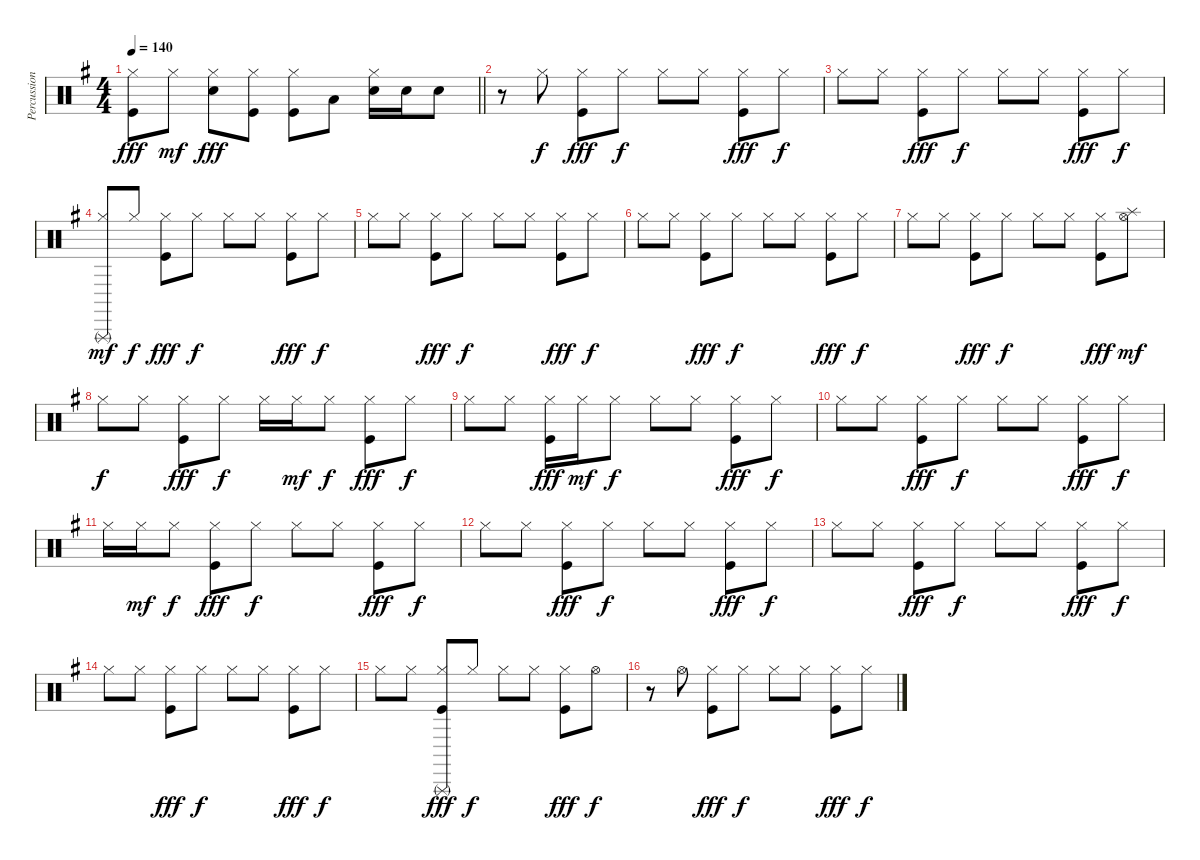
\track ("Percussioni" "Percussion") {instrument percussion}
\staff {score}
\articulation defaults
\ts (4 4)
\tempo 140
\clef neutral
\barLineRight lightlight
\ks eminor
("Hi-Hat (closed)" "Kick (hit)").8{dy fff} "Hi-Hat (closed)".8{dy mf} ("Hi-Hat (closed)" "Electric Snare (hit)").8{dy fff} ("Hi-Hat (closed)" "Kick (hit)").8 ("Hi-Hat (closed)" "Kick (hit)").8 "Low Tom (hit)".8 ("Hi-Hat (closed)" "Electric Snare (hit)").16 "Electric Snare (hit)".16 "Electric Snare (hit)".8 |
\section ("" "")
r.8 "Hi-Hat (closed)".8{dy f} ("Hi-Hat (closed)" "Kick (hit)").8{dy fff} "Hi-Hat (closed)".8{dy f} "Hi-Hat (closed)".8 "Hi-Hat (closed)".8 ("Hi-Hat (closed)" "Kick (hit)").8{dy fff} "Hi-Hat (closed)".8{dy f} |
"Hi-Hat (closed)".8 "Hi-Hat (closed)".8 ("Hi-Hat (closed)" "Kick (hit)").8{dy fff} "Hi-Hat (closed)".8{dy f} "Hi-Hat (closed)".8 "Hi-Hat (closed)".8 ("Hi-Hat (closed)" "Kick (hit)").8{dy fff} "Hi-Hat (closed)".8{dy f} |
("Hi-Hat (closed)" "Triangle (rnute)").8{dy mf} "Hi-Hat (closed)".8{dy f} ("Hi-Hat (closed)" "Kick (hit)").8{dy fff} "Hi-Hat (closed)".8{dy f} "Hi-Hat (closed)".8 "Hi-Hat (closed)".8 ("Hi-Hat (closed)" "Kick (hit)").8{dy fff} "Hi-Hat (closed)".8{dy f} |
"Hi-Hat (closed)".8 "Hi-Hat (closed)".8 ("Hi-Hat (closed)" "Kick (hit)").8{dy fff} "Hi-Hat (closed)".8{dy f} "Hi-Hat (closed)".8 "Hi-Hat (closed)".8 ("Hi-Hat (closed)" "Kick (hit)").8{dy fff} "Hi-Hat (closed)".8{dy f} |
"Hi-Hat (closed)".8 "Hi-Hat (closed)".8 ("Hi-Hat (closed)" "Kick (hit)").8{dy fff} "Hi-Hat (closed)".8{dy f} "Hi-Hat (closed)".8 "Hi-Hat (closed)".8 ("Hi-Hat (closed)" "Kick (hit)").8{dy fff} "Hi-Hat (closed)".8{dy f} |
"Hi-Hat (closed)".8 "Hi-Hat (closed)".8 ("Hi-Hat (closed)" "Kick (hit)").8{dy fff} "Hi-Hat (closed)".8{dy f} "Hi-Hat (closed)".8 "Hi-Hat (closed)".8 ("Hi-Hat (closed)" "Kick (hit)").8{dy fff} ("Hi-Hat (open)" "Splash (hit)").8{dy mf} |
"Hi-Hat (closed)".8{dy f} "Hi-Hat (closed)".8 ("Hi-Hat (closed)" "Kick (hit)").8{dy fff} "Hi-Hat (closed)".8{dy f} "Hi-Hat (closed)".16 "Hi-Hat (closed)".16{dy mf} "Hi-Hat (closed)".8{dy f} ("Hi-Hat (closed)" "Kick (hit)").8{dy fff} "Hi-Hat (closed)".8{dy f} |
"Hi-Hat (closed)".8 "Hi-Hat (closed)".8 ("Hi-Hat (closed)" "Kick (hit)").16{dy fff} "Hi-Hat (closed)".16{dy mf} "Hi-Hat (closed)".8{dy f} "Hi-Hat (closed)".8 "Hi-Hat (closed)".8 ("Hi-Hat (closed)" "Kick (hit)").8{dy fff} "Hi-Hat (closed)".8{dy f} |
"Hi-Hat (closed)".8 "Hi-Hat (closed)".8 ("Hi-Hat (closed)" "Kick (hit)").8{dy fff} "Hi-Hat (closed)".8{dy f} "Hi-Hat (closed)".8 "Hi-Hat (closed)".8 ("Hi-Hat (closed)" "Kick (hit)").8{dy fff} "Hi-Hat (closed)".8{dy f} |
"Hi-Hat (closed)".16 "Hi-Hat (closed)".16{dy mf} "Hi-Hat (closed)".8{dy f} ("Hi-Hat (closed)" "Kick (hit)").8{dy fff} "Hi-Hat (closed)".8{dy f} "Hi-Hat (closed)".8 "Hi-Hat (closed)".8 ("Hi-Hat (closed)" "Kick (hit)").8{dy fff} "Hi-Hat (closed)".8{dy f} |
"Hi-Hat (closed)".8 "Hi-Hat (closed)".8 ("Hi-Hat (closed)" "Kick (hit)").8{dy fff} "Hi-Hat (closed)".8{dy f} "Hi-Hat (closed)".8 "Hi-Hat (closed)".8 ("Hi-Hat (closed)" "Kick (hit)").8{dy fff} "Hi-Hat (closed)".8{dy f} |
"Hi-Hat (closed)".8 "Hi-Hat (closed)".8 ("Hi-Hat (closed)" "Kick (hit)").8{dy fff} "Hi-Hat (closed)".8{dy f} "Hi-Hat (closed)".8 "Hi-Hat (closed)".8 ("Hi-Hat (closed)" "Kick (hit)").8{dy fff} "Hi-Hat (closed)".8{dy f} |
"Hi-Hat (closed)".8 "Hi-Hat (closed)".8 ("Hi-Hat (closed)" "Kick (hit)").8{dy fff} "Hi-Hat (closed)".8{dy f} "Hi-Hat (closed)".8 "Hi-Hat (closed)".8 ("Hi-Hat (closed)" "Kick (hit)").8{dy fff} "Hi-Hat (closed)".8{dy f} |
"Hi-Hat (closed)".8 "Hi-Hat (closed)".8 ("Hi-Hat (closed)" "Triangle (rnute)" "Kick (hit)").8{dy fff} "Hi-Hat (closed)".8{dy f} "Hi-Hat (closed)".8 "Hi-Hat (closed)".8 ("Hi-Hat (closed)" "Kick (hit)").8{dy fff} "Hi-Hat (open)".8{dy f} |
r.8 "Hi-Hat (open)".8 ("Hi-Hat (closed)" "Kick (hit)").8{dy fff} "Hi-Hat (closed)".8{dy f} "Hi-Hat (closed)".8 "Hi-Hat (closed)".8 ("Hi-Hat (closed)" "Kick (hit)").8{dy fff} "Hi-Hat (closed)".8{dy f}
